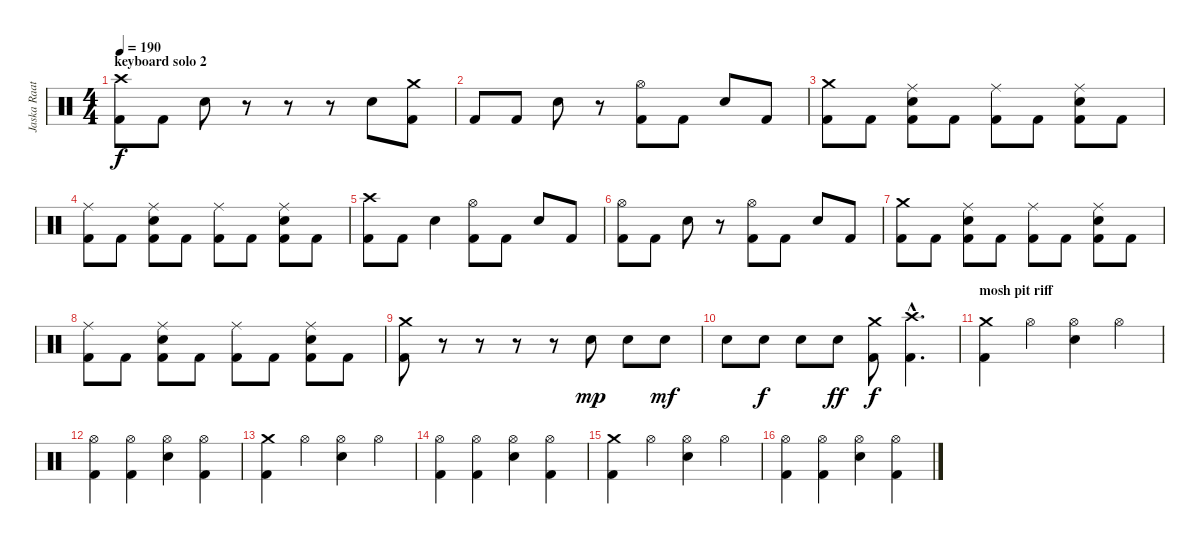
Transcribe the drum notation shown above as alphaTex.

\track ("Jaska Raatikainen" "Jaska Raat") {instrument percussion}
\staff {score}
\articulation defaults
\ts (4 4)
\section ("" "keyboard solo 2")
\tempo 190
\clef neutral
\ks c
("Crash high (hit)" "Kick (hit) 2").8{dy f} "Kick (hit) 2".8 "Snare (hit) 2".8 r.8 r.8 r.8 "Snare (hit) 2".8 ("Crash medium (hit)" "Kick (hit) 2").8 |
"Kick (hit) 2".8 "Kick (hit) 2".8 "Snare (hit) 2".8 r.8 ("Hi-Hat (open)" "Kick (hit) 2").8 "Kick (hit) 2".8 "Snare (hit) 2".8 "Kick (hit) 2".8 |
("Crash medium (hit)" "Kick (hit) 2").8 "Kick (hit) 2".8 ("Ride (middle)" "Snare (hit) 2" "Kick (hit) 2").8 "Kick (hit) 2".8 ("Ride (middle)" "Kick (hit) 2").8 "Kick (hit) 2".8 ("Ride (middle)" "Snare (hit) 2" "Kick (hit) 2").8 "Kick (hit) 2".8 |
("Ride (middle)" "Kick (hit) 2").8 "Kick (hit) 2".8 ("Ride (middle)" "Snare (hit) 2" "Kick (hit) 2").8 "Kick (hit) 2".8 ("Ride (middle)" "Kick (hit) 2").8 "Kick (hit) 2".8 ("Ride (middle)" "Snare (hit) 2" "Kick (hit) 2").8 "Kick (hit) 2".8 |
("Crash high (hit)" "Kick (hit) 2").8 "Kick (hit) 2".8 "Snare (hit) 2".4 ("Hi-Hat (open)" "Kick (hit) 2").8 "Kick (hit) 2".8 "Snare (hit) 2".8 "Kick (hit) 2".8 |
("Hi-Hat (open)" "Kick (hit) 2").8 "Kick (hit) 2".8 "Snare (hit) 2".8 r.8 ("Hi-Hat (open)" "Kick (hit) 2").8 "Kick (hit) 2".8 "Snare (hit) 2".8 "Kick (hit) 2".8 |
("Crash medium (hit)" "Kick (hit) 2").8 "Kick (hit) 2".8 ("Ride (middle)" "Snare (hit) 2" "Kick (hit) 2").8 "Kick (hit) 2".8 ("Ride (middle)" "Kick (hit) 2").8 "Kick (hit) 2".8 ("Ride (middle)" "Snare (hit) 2" "Kick (hit) 2").8 "Kick (hit) 2".8 |
("Ride (middle)" "Kick (hit) 2").8 "Kick (hit) 2".8 ("Ride (middle)" "Snare (hit) 2" "Kick (hit) 2").8 "Kick (hit) 2".8 ("Ride (middle)" "Kick (hit) 2").8 "Kick (hit) 2".8 ("Ride (middle)" "Snare (hit) 2" "Kick (hit) 2").8 "Kick (hit) 2".8 |
("Crash medium (hit)" "Kick (hit) 2").8 r.8 r.8 r.8 r.8 "Snare (hit) 2".8{dy mp} "Snare (hit) 2".8 "Snare (hit) 2".8{dy mf} |
"Snare (hit) 2".8 "Snare (hit) 2".8{dy f} "Snare (hit) 2".8 "Snare (hit) 2".8{dy ff} ("Crash medium (hit)" "Kick (hit) 2").8{dy f} ("Crash high (hit)"{hac} "Kick (hit) 2"{hac}).4{d} |
\section ("" "mosh pit riff")
("Crash medium (hit)" "Kick (hit) 2").4 "Hi-Hat (open)".4 ("Hi-Hat (open)" "Snare (hit) 2").4 "Hi-Hat (open)".4 |
("Hi-Hat (open)" "Kick (hit) 2").4 ("Hi-Hat (open)" "Kick (hit) 2").4 ("Hi-Hat (open)" "Snare (hit) 2").4 ("Hi-Hat (open)" "Kick (hit) 2").4 |
("Crash medium (hit)" "Kick (hit) 2").4 "Hi-Hat (open)".4 ("Hi-Hat (open)" "Snare (hit) 2").4 "Hi-Hat (open)".4 |
("Hi-Hat (open)" "Kick (hit) 2").4 ("Hi-Hat (open)" "Kick (hit) 2").4 ("Hi-Hat (open)" "Snare (hit) 2").4 ("Hi-Hat (open)" "Kick (hit) 2").4 |
("Crash medium (hit)" "Kick (hit) 2").4 "Hi-Hat (open)".4 ("Hi-Hat (open)" "Snare (hit) 2").4 "Hi-Hat (open)".4 |
("Hi-Hat (open)" "Kick (hit) 2").4 ("Hi-Hat (open)" "Kick (hit) 2").4 ("Hi-Hat (open)" "Snare (hit) 2").4 ("Hi-Hat (open)" "Kick (hit) 2").4
